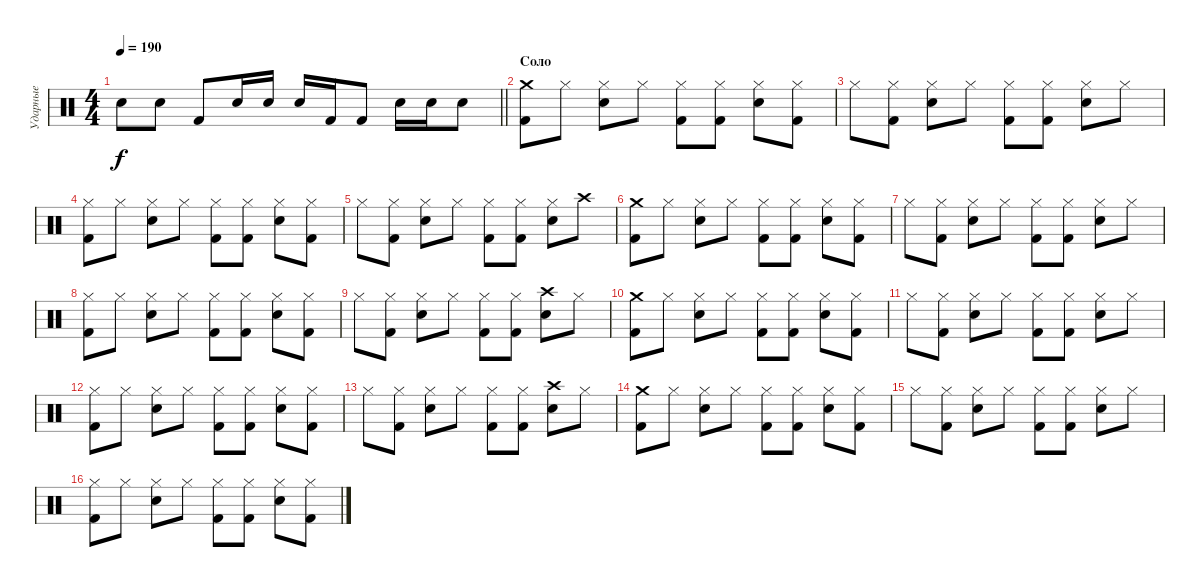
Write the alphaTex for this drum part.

\track ("Ударные" "Ударные") {instrument percussion}
\staff {score}
\articulation defaults
\ts (4 4)
\tempo 190
\clef neutral
\barLineRight lightlight
\ks c "Electric Snare (hit)".8{dy f} "Electric Snare (hit)".8 "Kick (hit) 2".8 "Electric Snare (hit)".16 "Electric Snare (hit)".16 "Electric Snare (hit)".16 "Kick (hit) 2".16 "Kick (hit) 2".8 "Electric Snare (hit)".16 "Electric Snare (hit)".16 "Electric Snare (hit)".8
|
\section ("" "Соло")
("Crash medium (hit)" "Kick (hit) 2").8 "Hi-Hat (closed)".8 ("Hi-Hat (closed)" "Electric Snare (hit)").8 "Hi-Hat (closed)".8 ("Hi-Hat (closed)" "Kick (hit) 2").8 ("Hi-Hat (closed)" "Kick (hit) 2").8 ("Hi-Hat (closed)" "Electric Snare (hit)").8 ("Hi-Hat (closed)" "Kick (hit) 2").8 |
"Hi-Hat (closed)".8 ("Hi-Hat (closed)" "Kick (hit) 2").8 ("Hi-Hat (closed)" "Electric Snare (hit)").8 "Hi-Hat (closed)".8 ("Hi-Hat (closed)" "Kick (hit) 2").8 ("Hi-Hat (closed)" "Kick (hit) 2").8 ("Hi-Hat (closed)" "Electric Snare (hit)").8 "Hi-Hat (closed)".8 |
("Hi-Hat (closed)" "Kick (hit) 2").8 "Hi-Hat (closed)".8 ("Hi-Hat (closed)" "Electric Snare (hit)").8 "Hi-Hat (closed)".8 ("Hi-Hat (closed)" "Kick (hit) 2").8 ("Hi-Hat (closed)" "Kick (hit) 2").8 ("Hi-Hat (closed)" "Electric Snare (hit)").8 ("Hi-Hat (closed)" "Kick (hit) 2").8 |
"Hi-Hat (closed)".8 ("Hi-Hat (closed)" "Kick (hit) 2").8 ("Hi-Hat (closed)" "Electric Snare (hit)").8 "Hi-Hat (closed)".8 ("Hi-Hat (closed)" "Kick (hit) 2").8 ("Hi-Hat (closed)" "Kick (hit) 2").8 ("Hi-Hat (closed)" "Electric Snare (hit)").8 "Crash high (hit)".8 |
("Crash medium (hit)" "Kick (hit) 2").8 "Hi-Hat (closed)".8 ("Hi-Hat (closed)" "Electric Snare (hit)").8 "Hi-Hat (closed)".8 ("Hi-Hat (closed)" "Kick (hit) 2").8 ("Hi-Hat (closed)" "Kick (hit) 2").8 ("Hi-Hat (closed)" "Electric Snare (hit)").8 ("Hi-Hat (closed)" "Kick (hit) 2").8 |
"Hi-Hat (closed)".8 ("Hi-Hat (closed)" "Kick (hit) 2").8 ("Hi-Hat (closed)" "Electric Snare (hit)").8 "Hi-Hat (closed)".8 ("Hi-Hat (closed)" "Kick (hit) 2").8 ("Hi-Hat (closed)" "Kick (hit) 2").8 ("Hi-Hat (closed)" "Electric Snare (hit)").8 "Hi-Hat (closed)".8 |
("Hi-Hat (closed)" "Kick (hit) 2").8 "Hi-Hat (closed)".8 ("Hi-Hat (closed)" "Electric Snare (hit)").8 "Hi-Hat (closed)".8 ("Hi-Hat (closed)" "Kick (hit) 2").8 ("Hi-Hat (closed)" "Kick (hit) 2").8 ("Hi-Hat (closed)" "Electric Snare (hit)").8 ("Hi-Hat (closed)" "Kick (hit) 2").8 |
"Hi-Hat (closed)".8 ("Hi-Hat (closed)" "Kick (hit) 2").8 ("Hi-Hat (closed)" "Electric Snare (hit)").8 "Hi-Hat (closed)".8 ("Hi-Hat (closed)" "Kick (hit) 2").8 ("Hi-Hat (closed)" "Kick (hit) 2").8 ("Crash high (hit)" "Electric Snare (hit)").8 "Hi-Hat (closed)".8 |
("Crash medium (hit)" "Kick (hit) 2").8 "Hi-Hat (closed)".8 ("Hi-Hat (closed)" "Electric Snare (hit)").8 "Hi-Hat (closed)".8 ("Hi-Hat (closed)" "Kick (hit) 2").8 ("Hi-Hat (closed)" "Kick (hit) 2").8 ("Hi-Hat (closed)" "Electric Snare (hit)").8 ("Hi-Hat (closed)" "Kick (hit) 2").8 |
"Hi-Hat (closed)".8 ("Hi-Hat (closed)" "Kick (hit) 2").8 ("Hi-Hat (closed)" "Electric Snare (hit)").8 "Hi-Hat (closed)".8 ("Hi-Hat (closed)" "Kick (hit) 2").8 ("Hi-Hat (closed)" "Kick (hit) 2").8 ("Hi-Hat (closed)" "Electric Snare (hit)").8 "Hi-Hat (closed)".8 |
("Hi-Hat (closed)" "Kick (hit) 2").8 "Hi-Hat (closed)".8 ("Hi-Hat (closed)" "Electric Snare (hit)").8 "Hi-Hat (closed)".8 ("Hi-Hat (closed)" "Kick (hit) 2").8 ("Hi-Hat (closed)" "Kick (hit) 2").8 ("Hi-Hat (closed)" "Electric Snare (hit)").8 ("Hi-Hat (closed)" "Kick (hit) 2").8 |
"Hi-Hat (closed)".8 ("Hi-Hat (closed)" "Kick (hit) 2").8 ("Hi-Hat (closed)" "Electric Snare (hit)").8 "Hi-Hat (closed)".8 ("Hi-Hat (closed)" "Kick (hit) 2").8 ("Hi-Hat (closed)" "Kick (hit) 2").8 ("Crash high (hit)" "Electric Snare (hit)").8 "Hi-Hat (closed)".8 |
("Crash medium (hit)" "Kick (hit) 2").8 "Hi-Hat (closed)".8 ("Hi-Hat (closed)" "Electric Snare (hit)").8 "Hi-Hat (closed)".8 ("Hi-Hat (closed)" "Kick (hit) 2").8 ("Hi-Hat (closed)" "Kick (hit) 2").8 ("Hi-Hat (closed)" "Electric Snare (hit)").8 ("Hi-Hat (closed)" "Kick (hit) 2").8 |
"Hi-Hat (closed)".8 ("Hi-Hat (closed)" "Kick (hit) 2").8 ("Hi-Hat (closed)" "Electric Snare (hit)").8 "Hi-Hat (closed)".8 ("Hi-Hat (closed)" "Kick (hit) 2").8 ("Hi-Hat (closed)" "Kick (hit) 2").8 ("Hi-Hat (closed)" "Electric Snare (hit)").8 "Hi-Hat (closed)".8 |
("Hi-Hat (closed)" "Kick (hit) 2").8 "Hi-Hat (closed)".8 ("Hi-Hat (closed)" "Electric Snare (hit)").8 "Hi-Hat (closed)".8 ("Hi-Hat (closed)" "Kick (hit) 2").8 ("Hi-Hat (closed)" "Kick (hit) 2").8 ("Hi-Hat (closed)" "Electric Snare (hit)").8 ("Hi-Hat (closed)" "Kick (hit) 2").8
